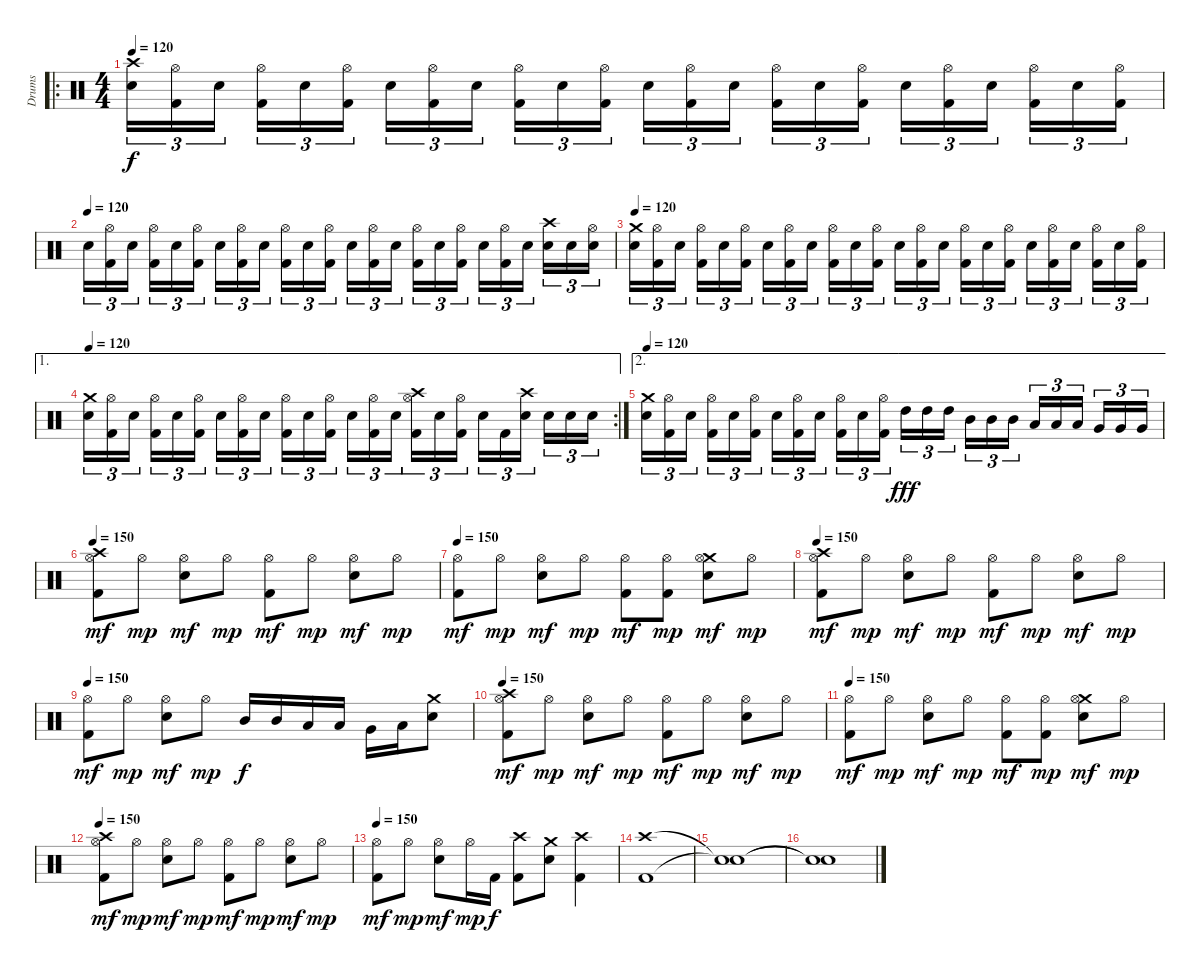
\track ("Drums" "Drums") {instrument percussion}
\staff {score}
\articulation defaults
\ro
\ts (4 4)
\tempo 120
\clef neutral
\ks c
("Crash high (hit)" "Electric Snare (hit)").16{tu (3 2) dy f} ("Hi-Hat (open)" "Kick (hit) 2").16{tu (3 2)} "Electric Snare (hit)".16{tu (3 2)} ("Hi-Hat (open)" "Kick (hit) 2").16{tu (3 2)} "Electric Snare (hit)".16{tu (3 2)} ("Hi-Hat (open)" "Kick (hit) 2").16{tu (3 2)} "Electric Snare (hit)".16{tu (3 2)} ("Hi-Hat (open)" "Kick (hit) 2").16{tu (3 2)} "Electric Snare (hit)".16{tu (3 2)} ("Hi-Hat (open)" "Kick (hit) 2").16{tu (3 2)} "Electric Snare (hit)".16{tu (3 2)} ("Hi-Hat (open)" "Kick (hit) 2").16{tu (3 2)} "Electric Snare (hit)".16{tu (3 2)} ("Hi-Hat (open)" "Kick (hit) 2").16{tu (3 2)} "Electric Snare (hit)".16{tu (3 2)} ("Hi-Hat (open)" "Kick (hit) 2").16{tu (3 2)} "Electric Snare (hit)".16{tu (3 2)} ("Hi-Hat (open)" "Kick (hit) 2").16{tu (3 2)} "Electric Snare (hit)".16{tu (3 2)} ("Hi-Hat (open)" "Kick (hit) 2").16{tu (3 2)} "Electric Snare (hit)".16{tu (3 2)} ("Hi-Hat (open)" "Kick (hit) 2").16{tu (3 2)} "Electric Snare (hit)".16{tu (3 2)} ("Hi-Hat (open)" "Kick (hit) 2").16{tu (3 2)} |
\tempo (120)
"Electric Snare (hit)".16{tu (3 2)} ("Hi-Hat (open)" "Kick (hit) 2").16{tu (3 2)} "Electric Snare (hit)".16{tu (3 2)} ("Hi-Hat (open)" "Kick (hit) 2").16{tu (3 2)} "Electric Snare (hit)".16{tu (3 2)} ("Hi-Hat (open)" "Kick (hit) 2").16{tu (3 2)} "Electric Snare (hit)".16{tu (3 2)} ("Hi-Hat (open)" "Kick (hit) 2").16{tu (3 2)} "Electric Snare (hit)".16{tu (3 2)} ("Hi-Hat (open)" "Kick (hit) 2").16{tu (3 2)} "Electric Snare (hit)".16{tu (3 2)} ("Hi-Hat (open)" "Kick (hit) 2").16{tu (3 2)} "Electric Snare (hit)".16{tu (3 2)} ("Hi-Hat (open)" "Kick (hit) 2").16{tu (3 2)} "Electric Snare (hit)".16{tu (3 2)} ("Hi-Hat (open)" "Kick (hit) 2").16{tu (3 2)} "Electric Snare (hit)".16{tu (3 2)} ("Hi-Hat (open)" "Kick (hit) 2").16{tu (3 2)} "Electric Snare (hit)".16{tu (3 2)} ("Hi-Hat (open)" "Kick (hit) 2").16{tu (3 2)} "Electric Snare (hit)".16{tu (3 2)} ("Crash high (hit)" "Electric Snare (hit)").16{tu (3 2)} "Electric Snare (hit)".16{tu (3 2)} ("Hi-Hat (open)" "Electric Snare (hit)").16{tu (3 2)} |
\tempo 120
("Crash medium (hit)" "Electric Snare (hit)").16{tu (3 2)} ("Hi-Hat (open)" "Kick (hit) 2").16{tu (3 2)} "Electric Snare (hit)".16{tu (3 2)} ("Hi-Hat (open)" "Kick (hit) 2").16{tu (3 2)} "Electric Snare (hit)".16{tu (3 2)} ("Hi-Hat (open)" "Kick (hit) 2").16{tu (3 2)} "Electric Snare (hit)".16{tu (3 2)} ("Hi-Hat (open)" "Kick (hit) 2").16{tu (3 2)} "Electric Snare (hit)".16{tu (3 2)} ("Hi-Hat (open)" "Kick (hit) 2").16{tu (3 2)} "Electric Snare (hit)".16{tu (3 2)} ("Hi-Hat (open)" "Kick (hit) 2").16{tu (3 2)} "Electric Snare (hit)".16{tu (3 2)} ("Hi-Hat (open)" "Kick (hit) 2").16{tu (3 2)} "Electric Snare (hit)".16{tu (3 2)} ("Hi-Hat (open)" "Kick (hit) 2").16{tu (3 2)} "Electric Snare (hit)".16{tu (3 2)} ("Hi-Hat (open)" "Kick (hit) 2").16{tu (3 2)} "Electric Snare (hit)".16{tu (3 2)} ("Hi-Hat (open)" "Kick (hit) 2").16{tu (3 2)} "Electric Snare (hit)".16{tu (3 2)} ("Hi-Hat (open)" "Kick (hit) 2").16{tu (3 2)} "Electric Snare (hit)".16{tu (3 2)} ("Hi-Hat (open)" "Kick (hit) 2").16{tu (3 2)} |
\ae 1
\rc 2
\tempo 120
("Crash medium (hit)" "Electric Snare (hit)").16{tu (3 2)} ("Hi-Hat (open)" "Kick (hit) 2").16{tu (3 2)} "Electric Snare (hit)".16{tu (3 2)} ("Hi-Hat (open)" "Kick (hit) 2").16{tu (3 2)} "Electric Snare (hit)".16{tu (3 2)} ("Hi-Hat (open)" "Kick (hit) 2").16{tu (3 2)} "Electric Snare (hit)".16{tu (3 2)} ("Hi-Hat (open)" "Kick (hit) 2").16{tu (3 2)} "Electric Snare (hit)".16{tu (3 2)} ("Hi-Hat (open)" "Kick (hit) 2").16{tu (3 2)} "Electric Snare (hit)".16{tu (3 2)} ("Hi-Hat (open)" "Kick (hit) 2").16{tu (3 2)} "Electric Snare (hit)".16{tu (3 2)} ("Hi-Hat (open)" "Kick (hit) 2").16{tu (3 2)} "Electric Snare (hit)".16{tu (3 2)} ("Crash high (hit)" "Hi-Hat (open)" "Kick (hit) 2").16{tu (3 2)} "Electric Snare (hit)".16{tu (3 2)} ("Hi-Hat (open)" "Kick (hit) 2").16{tu (3 2)} "Electric Snare (hit)".16{tu (3 2)} "Kick (hit) 2".16{tu (3 2)} ("Crash high (hit)" "Electric Snare (hit)").16{tu (3 2)} "Electric Snare (hit)".16{tu (3 2)} "Electric Snare (hit)".16{tu (3 2)} "Electric Snare (hit)".16{tu (3 2)} |
\ae 2
\tempo 120
("Crash medium (hit)" "Electric Snare (hit)").16{tu (3 2)} ("Hi-Hat (open)" "Kick (hit) 2").16{tu (3 2)} "Electric Snare (hit)".16{tu (3 2)} ("Hi-Hat (open)" "Kick (hit) 2").16{tu (3 2)} "Electric Snare (hit)".16{tu (3 2)} ("Hi-Hat (open)" "Kick (hit) 2").16{tu (3 2)} "Electric Snare (hit)".16{tu (3 2)} ("Hi-Hat (open)" "Kick (hit) 2").16{tu (3 2)} "Electric Snare (hit)".16{tu (3 2)} ("Hi-Hat (open)" "Kick (hit) 2").16{tu (3 2)} "Electric Snare (hit)".16{tu (3 2)} ("Hi-Hat (open)" "Kick (hit) 2").16{tu (3 2)} "High Tom (hit)".16{tu (3 2) dy fff} "High Tom (hit)".16{tu (3 2)} "High Tom (hit)".16{tu (3 2)} "Mid Tom (hit)".16{tu (3 2)} "Mid Tom (hit)".16{tu (3 2)} "Mid Tom (hit)".16{tu (3 2)} "Low Tom (hit)".16{tu (3 2)} "Low Tom (hit)".16{tu (3 2)} "Low Tom (hit)".16{tu (3 2)} "Very Low Tom (hit)".16{tu (3 2)} "Very Low Tom (hit)".16{tu (3 2)} "Very Low Tom (hit)".16{tu (3 2)} |
\tempo 150
("Crash high (hit)" "Hi-Hat (open)" "Kick (hit) 2").8{dy mf} "Hi-Hat (open)".8{dy mp} ("Hi-Hat (open)" "Electric Snare (hit)").8{dy mf} "Hi-Hat (open)".8{dy mp} ("Hi-Hat (open)" "Kick (hit) 2").8{dy mf} "Hi-Hat (open)".8{dy mp} ("Hi-Hat (open)" "Electric Snare (hit)").8{dy mf} "Hi-Hat (open)".8{dy mp} |
\tempo 150
("Hi-Hat (open)" "Kick (hit) 2").8{dy mf} "Hi-Hat (open)".8{dy mp} ("Hi-Hat (open)" "Electric Snare (hit)").8{dy mf} "Hi-Hat (open)".8{dy mp} ("Hi-Hat (open)" "Kick (hit) 2").8{dy mf} ("Hi-Hat (open)" "Kick (hit) 2").8{dy mp} ("Crash medium (hit)" "Hi-Hat (open)" "Electric Snare (hit)").8{dy mf} "Hi-Hat (open)".8{dy mp} |
\tempo 150
("Crash high (hit)" "Hi-Hat (open)" "Kick (hit) 2").8{dy mf} "Hi-Hat (open)".8{dy mp} ("Hi-Hat (open)" "Electric Snare (hit)").8{dy mf} "Hi-Hat (open)".8{dy mp} ("Hi-Hat (open)" "Kick (hit) 2").8{dy mf} "Hi-Hat (open)".8{dy mp} ("Hi-Hat (open)" "Electric Snare (hit)").8{dy mf} "Hi-Hat (open)".8{dy mp} |
\tempo 150
("Hi-Hat (open)" "Kick (hit) 2").8{dy mf} "Hi-Hat (open)".8{dy mp} ("Hi-Hat (open)" "Electric Snare (hit)").8{dy mf} "Hi-Hat (open)".8{dy mp} "Mid Tom (hit)".16{dy f} "Mid Tom (hit)".16 "Low Tom (hit)".16 "Low Tom (hit)".16 "Very Low Tom (hit)".16 "Low Floor Tom (hit)".16 ("Crash medium (hit)" "Electric Snare (hit)").8 |
\tempo 150
("Crash high (hit)" "Hi-Hat (open)" "Kick (hit) 2").8{dy mf} "Hi-Hat (open)".8{dy mp} ("Hi-Hat (open)" "Electric Snare (hit)").8{dy mf} "Hi-Hat (open)".8{dy mp} ("Hi-Hat (open)" "Kick (hit) 2").8{dy mf} "Hi-Hat (open)".8{dy mp} ("Hi-Hat (open)" "Electric Snare (hit)").8{dy mf} "Hi-Hat (open)".8{dy mp} |
\tempo 150
("Hi-Hat (open)" "Kick (hit) 2").8{dy mf} "Hi-Hat (open)".8{dy mp} ("Hi-Hat (open)" "Electric Snare (hit)").8{dy mf} "Hi-Hat (open)".8{dy mp} ("Hi-Hat (open)" "Kick (hit) 2").8{dy mf} ("Hi-Hat (open)" "Kick (hit) 2").8{dy mp} ("Crash medium (hit)" "Hi-Hat (open)" "Electric Snare (hit)").8{dy mf} "Hi-Hat (open)".8{dy mp} |
\tempo 150
("Crash high (hit)" "Hi-Hat (open)" "Kick (hit) 2").8{dy mf} "Hi-Hat (open)".8{dy mp} ("Hi-Hat (open)" "Electric Snare (hit)").8{dy mf} "Hi-Hat (open)".8{dy mp} ("Hi-Hat (open)" "Kick (hit) 2").8{dy mf} "Hi-Hat (open)".8{dy mp} ("Hi-Hat (open)" "Electric Snare (hit)").8{dy mf} "Hi-Hat (open)".8{dy mp} |
\tempo 150
("Hi-Hat (open)" "Kick (hit) 2").8{dy mf} "Hi-Hat (open)".8{dy mp} ("Hi-Hat (open)" "Electric Snare (hit)").8{dy mf} "Hi-Hat (open)".16{dy mp} "Kick (hit) 2".16{dy f} ("Crash high (hit)" "Kick (hit) 2").8 ("Crash medium (hit)" "Electric Snare (hit)").8 ("Crash high (hit)" "Kick (hit) 2").4 |
("Crash high (hit)" "Kick (hit) 2").1 |
("Snare (hit)"{t} "Snare (hit)"{t}).1 |
("Snare (hit)"{t} "Snare (hit)"{t}).1
